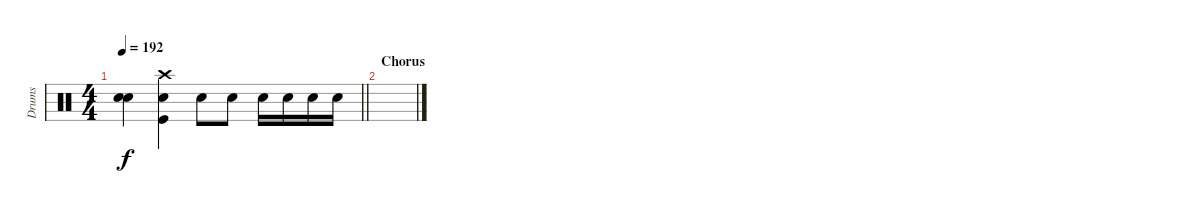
\track ("Drums" "Drums") {instrument percussion}
\staff
\articulation defaults
\ts (4 4)
\tempo 192
\clef neutral
\barLineRight lightlight
\ks c
("Snare (hit)"{t} "Snare (hit)"{t}).4{dy f} ("Crash high (hit)" "Electric Snare (hit)" "Kick (hit)").4 "Electric Snare (hit)".8 "Electric Snare (hit)".8 "Electric Snare (hit)".16 "Electric Snare (hit)".16 "Electric Snare (hit)".16 "Electric Snare (hit)".16 |
\section ("" "Chorus")
